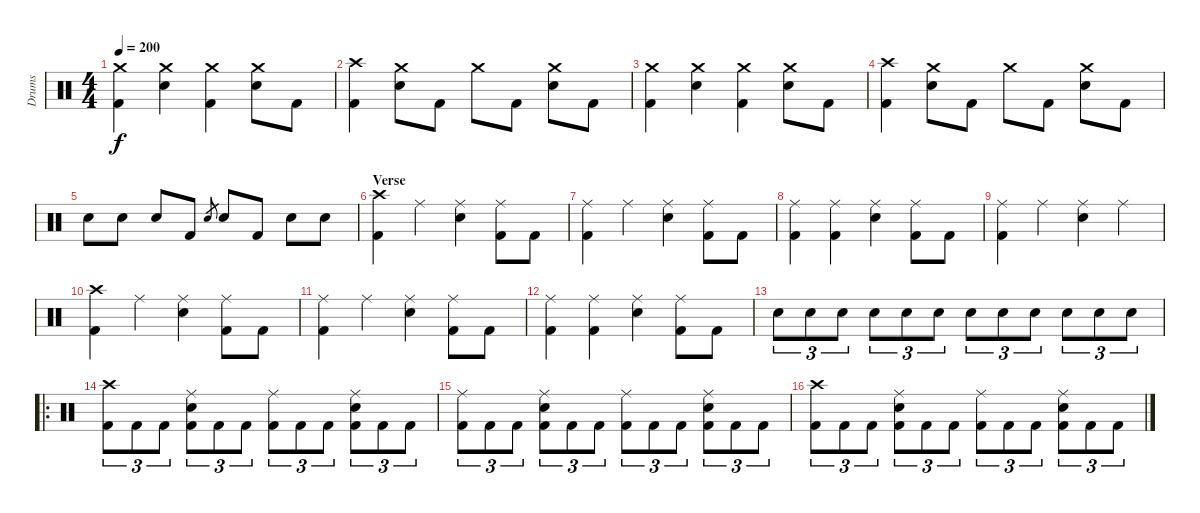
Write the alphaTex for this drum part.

\track ("Drums" "Drums") {instrument percussion}
\staff {score}
\articulation defaults
\ts (4 4)
\tempo 200
\clef neutral
\ks c
("Crash medium (hit)" "Kick (hit) 2").4{dy f} ("Crash medium (hit)" "Electric Snare (hit)").4 ("Crash medium (hit)" "Kick (hit) 2").4 ("Crash medium (hit)" "Electric Snare (hit)").8 "Kick (hit) 2".8 |
("Crash high (hit)" "Kick (hit) 2").4 ("Crash medium (hit)" "Electric Snare (hit)").8 "Kick (hit) 2".8 "Crash medium (hit)".8 "Kick (hit) 2".8 ("Crash medium (hit)" "Electric Snare (hit)").8 "Kick (hit) 2".8 |
("Crash medium (hit)" "Kick (hit) 2").4 ("Crash medium (hit)" "Electric Snare (hit)").4 ("Crash medium (hit)" "Kick (hit) 2").4 ("Crash medium (hit)" "Electric Snare (hit)").8 "Kick (hit) 2".8 |
("Crash high (hit)" "Kick (hit) 2").4 ("Crash medium (hit)" "Electric Snare (hit)").8 "Kick (hit) 2".8 "Crash medium (hit)".8 "Kick (hit) 2".8 ("Crash medium (hit)" "Electric Snare (hit)").8 "Kick (hit) 2".8 |
"Electric Snare (hit)".8 "Electric Snare (hit)".8 "Electric Snare (hit)".8 "Kick (hit) 2".8 "Electric Snare (hit)".8{gr} "Electric Snare (hit)".8 "Kick (hit) 2".8 "Electric Snare (hit)".8 "Electric Snare (hit)".8 |
\section ("" "Verse")
("Crash high (hit)" "Kick (hit) 2").4 "Ride (middle)".4 ("Ride (middle)" "Electric Snare (hit)").4 ("Ride (middle)" "Kick (hit) 2").8 "Kick (hit) 2".8 |
("Ride (middle)" "Kick (hit) 2").4 "Ride (middle)".4 ("Ride (middle)" "Electric Snare (hit)").4 ("Ride (middle)" "Kick (hit) 2").8 "Kick (hit) 2".8 |
("Ride (middle)" "Kick (hit) 2").4 ("Ride (middle)" "Kick (hit) 2").4 ("Ride (middle)" "Electric Snare (hit)").4 ("Ride (middle)" "Kick (hit) 2").8 "Kick (hit) 2".8 |
("Ride (middle)" "Kick (hit) 2").4 "Ride (middle)".4 ("Ride (middle)" "Electric Snare (hit)").4 "Ride (middle)".4 |
("Crash high (hit)" "Kick (hit) 2").4 "Ride (middle)".4 ("Ride (middle)" "Electric Snare (hit)").4 ("Ride (middle)" "Kick (hit) 2").8 "Kick (hit) 2".8 |
("Ride (middle)" "Kick (hit) 2").4 "Ride (middle)".4 ("Ride (middle)" "Electric Snare (hit)").4 ("Ride (middle)" "Kick (hit) 2").8 "Kick (hit) 2".8 |
("Ride (middle)" "Kick (hit) 2").4 ("Ride (middle)" "Kick (hit) 2").4 ("Ride (middle)" "Electric Snare (hit)").4 ("Ride (middle)" "Kick (hit) 2").8 "Kick (hit) 2".8 |
"Electric Snare (hit)".8{tu (3 2)} "Electric Snare (hit)".8{tu (3 2)} "Electric Snare (hit)".8{tu (3 2)} "Electric Snare (hit)".8{tu (3 2)} "Electric Snare (hit)".8{tu (3 2)} "Electric Snare (hit)".8{tu (3 2)} "Electric Snare (hit)".8{tu (3 2)} "Electric Snare (hit)".8{tu (3 2)} "Electric Snare (hit)".8{tu (3 2)} "Electric Snare (hit)".8{tu (3 2)} "Electric Snare (hit)".8{tu (3 2)} "Electric Snare (hit)".8{tu (3 2)} |
\ro
("Crash high (hit)" "Kick (hit) 2").8{tu (3 2)} "Kick (hit) 2".8{tu (3 2)} "Kick (hit) 2".8{tu (3 2)} ("Ride (middle)" "Electric Snare (hit)" "Kick (hit) 2").8{tu (3 2)} "Kick (hit) 2".8{tu (3 2)} "Kick (hit) 2".8{tu (3 2)} ("Ride (middle)" "Kick (hit) 2").8{tu (3 2)} "Kick (hit) 2".8{tu (3 2)} "Kick (hit) 2".8{tu (3 2)} ("Ride (middle)" "Electric Snare (hit)" "Kick (hit) 2").8{tu (3 2)} "Kick (hit) 2".8{tu (3 2)} "Kick (hit) 2".8{tu (3 2)} |
("Ride (middle)" "Kick (hit) 2").8{tu (3 2)} "Kick (hit) 2".8{tu (3 2)} "Kick (hit) 2".8{tu (3 2)} ("Ride (middle)" "Electric Snare (hit)" "Kick (hit) 2").8{tu (3 2)} "Kick (hit) 2".8{tu (3 2)} "Kick (hit) 2".8{tu (3 2)} ("Ride (middle)" "Kick (hit) 2").8{tu (3 2)} "Kick (hit) 2".8{tu (3 2)} "Kick (hit) 2".8{tu (3 2)} ("Ride (middle)" "Electric Snare (hit)" "Kick (hit) 2").8{tu (3 2)} "Kick (hit) 2".8{tu (3 2)} "Kick (hit) 2".8{tu (3 2)} |
("Crash high (hit)" "Kick (hit) 2").8{tu (3 2)} "Kick (hit) 2".8{tu (3 2)} "Kick (hit) 2".8{tu (3 2)} ("Ride (middle)" "Electric Snare (hit)" "Kick (hit) 2").8{tu (3 2)} "Kick (hit) 2".8{tu (3 2)} "Kick (hit) 2".8{tu (3 2)} ("Ride (middle)" "Kick (hit) 2").8{tu (3 2)} "Kick (hit) 2".8{tu (3 2)} "Kick (hit) 2".8{tu (3 2)} ("Ride (middle)" "Electric Snare (hit)" "Kick (hit) 2").8{tu (3 2)} "Kick (hit) 2".8{tu (3 2)} "Kick (hit) 2".8{tu (3 2)}
